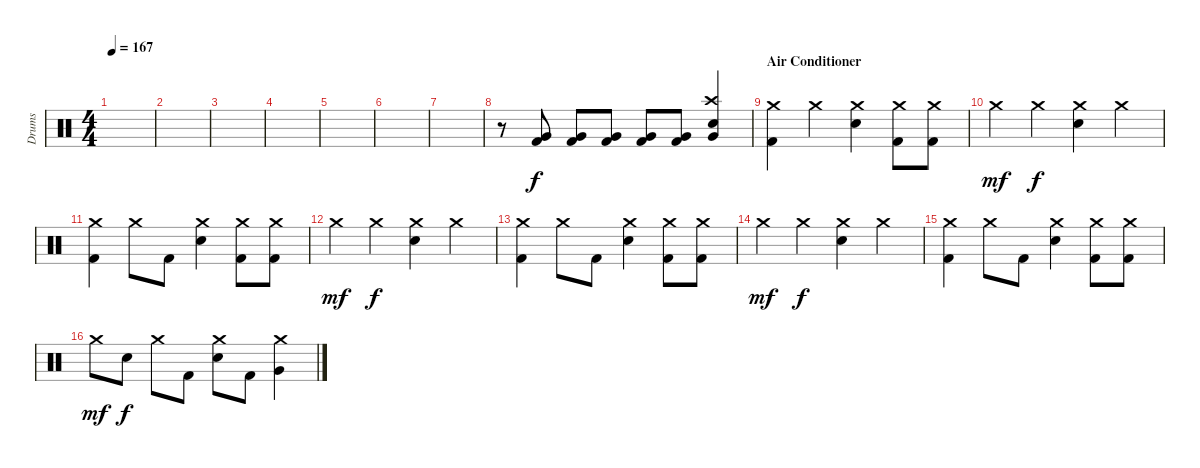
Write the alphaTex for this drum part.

\track ("Drums" "Drums") {instrument percussion}
\staff {score}
\articulation defaults
\ts (4 4)
\tempo 167
\clef neutral
\ks c
|
|
|
|
|
|
|
r.8 ("Very Low Tom (hit)" "Kick (hit) 2").8 ("Very Low Tom (hit)" "Kick (hit) 2").8 ("Very Low Tom (hit)" "Kick (hit) 2").8 ("Very Low Tom (hit)" "Kick (hit) 2").8 ("Very Low Tom (hit)" "Kick (hit) 2").8 ("Crash high (hit)" "Very Low Tom (hit)" "Electric Snare (hit)").4 |
\section ("" "Air Conditioner")
("Crash medium (hit)" "Kick (hit) 2").4 "Crash medium (hit)".4 ("Crash medium (hit)" "Electric Snare (hit)").4 ("Crash medium (hit)" "Kick (hit) 2").8 ("Crash medium (hit)" "Kick (hit) 2").8 |
"Crash medium (hit)".4{dy mf} "Crash medium (hit)".4{dy f} ("Crash medium (hit)" "Electric Snare (hit)").4 "Crash medium (hit)".4 |
("Crash medium (hit)" "Kick (hit) 2").4 "Crash medium (hit)".8 "Kick (hit) 2".8 ("Crash medium (hit)" "Electric Snare (hit)").4 ("Crash medium (hit)" "Kick (hit) 2").8 ("Crash medium (hit)" "Kick (hit) 2").8 |
"Crash medium (hit)".4{dy mf} "Crash medium (hit)".4{dy f} ("Crash medium (hit)" "Electric Snare (hit)").4 "Crash medium (hit)".4 |
("Crash medium (hit)" "Kick (hit) 2").4 "Crash medium (hit)".8 "Kick (hit) 2".8 ("Crash medium (hit)" "Electric Snare (hit)").4 ("Crash medium (hit)" "Kick (hit) 2").8 ("Crash medium (hit)" "Kick (hit) 2").8 |
"Crash medium (hit)".4{dy mf} "Crash medium (hit)".4{dy f} ("Crash medium (hit)" "Electric Snare (hit)").4 "Crash medium (hit)".4 |
("Crash medium (hit)" "Kick (hit) 2").4 "Crash medium (hit)".8 "Kick (hit) 2".8 ("Crash medium (hit)" "Electric Snare (hit)").4 ("Crash medium (hit)" "Kick (hit) 2").8 ("Crash medium (hit)" "Kick (hit) 2").8 |
"Crash medium (hit)".8{dy mf} "Electric Snare (hit)".8{dy f} "Crash medium (hit)".8 "Kick (hit) 2".8 ("Crash medium (hit)" "Electric Snare (hit)").8 "Kick (hit) 2".8 ("Crash medium (hit)" "Very Low Tom (hit)").4
